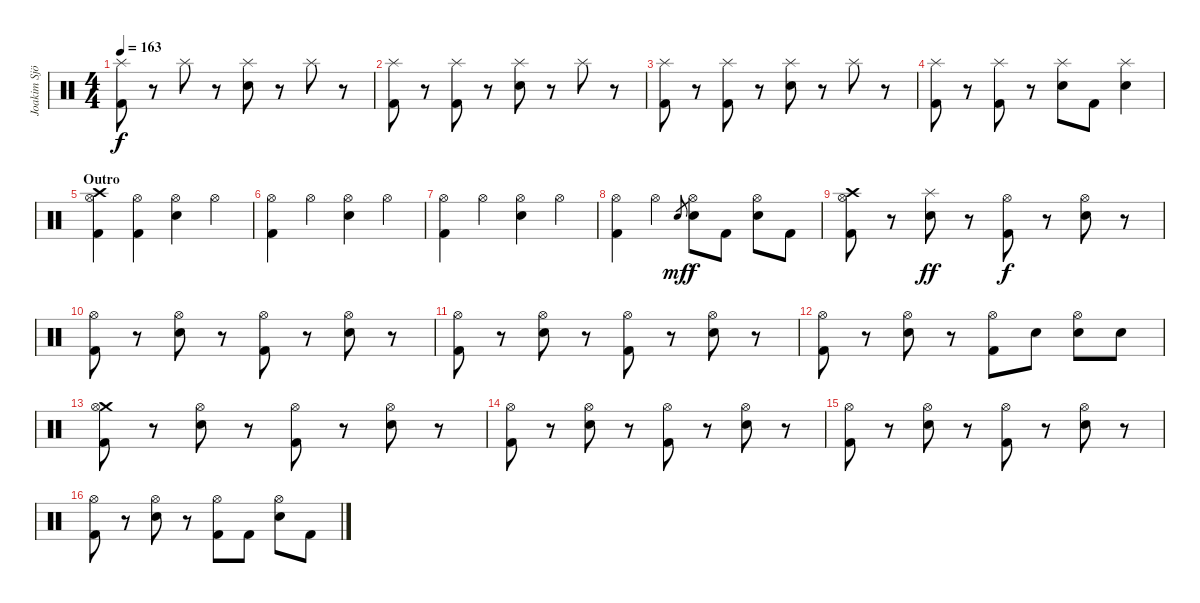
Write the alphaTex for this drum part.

\track ("Joakim Sjöberg" "Joakim Sjö") {instrument percussion}
\staff {score}
\articulation defaults
\ts (4 4)
\tempo 163
\clef neutral
\ks c
("Splash (hit)" "Kick (hit) 2").8{dy f} r.8 "Splash (hit)".8 r.8 ("Splash (hit)" "Electric Snare (hit)").8 r.8 "Splash (hit)".8 r.8 |
("Splash (hit)" "Kick (hit) 2").8 r.8 ("Splash (hit)" "Kick (hit) 2").8 r.8 ("Splash (hit)" "Electric Snare (hit)").8 r.8 "Splash (hit)".8 r.8 |
("Splash (hit)" "Kick (hit) 2").8 r.8 ("Splash (hit)" "Kick (hit) 2").8 r.8 ("Splash (hit)" "Electric Snare (hit)").8 r.8 "Splash (hit)".8 r.8 |
("Splash (hit)" "Kick (hit) 2").8 r.8 ("Splash (hit)" "Kick (hit) 2").8 r.8 ("Splash (hit)" "Electric Snare (hit)").8 "Kick (hit) 2".8 ("Splash (hit)" "Electric Snare (hit)").4 |
\section ("" "Outro")
("Crash high (hit)" "Hi-Hat (open)" "Kick (hit) 2").4 ("Hi-Hat (open)" "Kick (hit) 2").4 ("Hi-Hat (open)" "Electric Snare (hit)").4 "Hi-Hat (open)".4 |
("Hi-Hat (open)" "Kick (hit) 2").4 "Hi-Hat (open)".4 ("Hi-Hat (open)" "Electric Snare (hit)").4 "Hi-Hat (open)".4 |
("Hi-Hat (open)" "Kick (hit) 2").4 "Hi-Hat (open)".4 ("Hi-Hat (open)" "Electric Snare (hit)").4 "Hi-Hat (open)".4 |
("Hi-Hat (open)" "Kick (hit) 2").4 "Hi-Hat (open)".4 "Electric Snare (hit)".8{gr dy mf} ("Hi-Hat (open)" "Electric Snare (hit)").8{dy f} "Kick (hit) 2".8 ("Hi-Hat (open)" "Electric Snare (hit)").8 "Kick (hit) 2".8 |
("Crash high (hit)" "Hi-Hat (open)" "Kick (hit) 2").8 r.8 ("Splash (hit)" "Electric Snare (hit)").8{dy ff} r.8 ("Hi-Hat (open)" "Kick (hit) 2").8{dy f} r.8 ("Hi-Hat (open)" "Electric Snare (hit)").8 r.8 |
("Hi-Hat (open)" "Kick (hit) 2").8 r.8 ("Hi-Hat (open)" "Electric Snare (hit)").8 r.8 ("Hi-Hat (open)" "Kick (hit) 2").8 r.8 ("Hi-Hat (open)" "Electric Snare (hit)").8 r.8 |
("Hi-Hat (open)" "Kick (hit) 2").8 r.8 ("Hi-Hat (open)" "Electric Snare (hit)").8 r.8 ("Hi-Hat (open)" "Kick (hit) 2").8 r.8 ("Hi-Hat (open)" "Electric Snare (hit)").8 r.8 |
("Hi-Hat (open)" "Kick (hit) 2").8 r.8 ("Hi-Hat (open)" "Electric Snare (hit)").8 r.8 ("Hi-Hat (open)" "Kick (hit) 2").8 "Electric Snare (hit)".8 ("Hi-Hat (open)" "Electric Snare (hit)").8 "Electric Snare (hit)".8 |
("Crash medium (hit)" "Hi-Hat (open)" "Kick (hit) 2").8 r.8 ("Hi-Hat (open)" "Electric Snare (hit)").8 r.8 ("Hi-Hat (open)" "Kick (hit) 2").8 r.8 ("Hi-Hat (open)" "Electric Snare (hit)").8 r.8 |
("Hi-Hat (open)" "Kick (hit) 2").8 r.8 ("Hi-Hat (open)" "Electric Snare (hit)").8 r.8 ("Hi-Hat (open)" "Kick (hit) 2").8 r.8 ("Hi-Hat (open)" "Electric Snare (hit)").8 r.8 |
("Hi-Hat (open)" "Kick (hit) 2").8 r.8 ("Hi-Hat (open)" "Electric Snare (hit)").8 r.8 ("Hi-Hat (open)" "Kick (hit) 2").8 r.8 ("Hi-Hat (open)" "Electric Snare (hit)").8 r.8 |
("Hi-Hat (open)" "Kick (hit) 2").8 r.8 ("Hi-Hat (open)" "Electric Snare (hit)").8 r.8 ("Hi-Hat (open)" "Kick (hit) 2").8 "Kick (hit) 2".8 ("Hi-Hat (open)" "Electric Snare (hit)").8 "Kick (hit) 2".8
